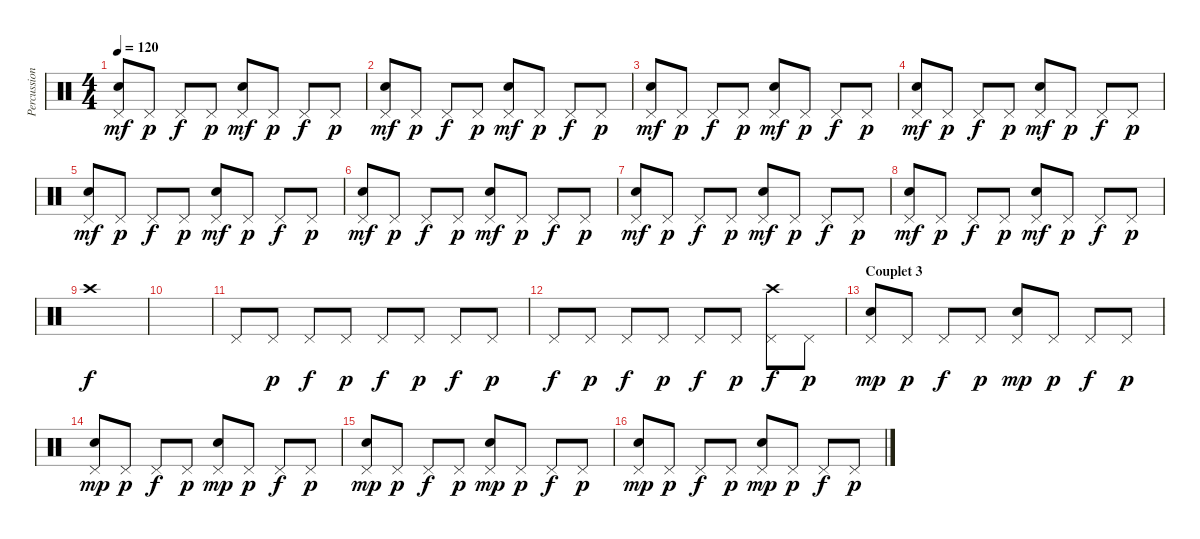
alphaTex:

\track ("Percussions" "Percussion") {instrument percussion}
\staff {score}
\articulation defaults
\ts (4 4)
\tempo 120
\clef neutral
\ks c
("Pedal Hi-Hat (hit)" "Hand Clap (hit)").8{dy mf} "Pedal Hi-Hat (hit)".8{dy p} "Pedal Hi-Hat (hit)".8{dy f} "Pedal Hi-Hat (hit)".8{dy p} ("Pedal Hi-Hat (hit)" "Hand Clap (hit)").8{dy mf} "Pedal Hi-Hat (hit)".8{dy p} "Pedal Hi-Hat (hit)".8{dy f} "Pedal Hi-Hat (hit)".8{dy p} |
("Pedal Hi-Hat (hit)" "Hand Clap (hit)").8{dy mf} "Pedal Hi-Hat (hit)".8{dy p} "Pedal Hi-Hat (hit)".8{dy f} "Pedal Hi-Hat (hit)".8{dy p} ("Pedal Hi-Hat (hit)" "Hand Clap (hit)").8{dy mf} "Pedal Hi-Hat (hit)".8{dy p} "Pedal Hi-Hat (hit)".8{dy f} "Pedal Hi-Hat (hit)".8{dy p} |
("Pedal Hi-Hat (hit)" "Hand Clap (hit)").8{dy mf} "Pedal Hi-Hat (hit)".8{dy p} "Pedal Hi-Hat (hit)".8{dy f} "Pedal Hi-Hat (hit)".8{dy p} ("Pedal Hi-Hat (hit)" "Hand Clap (hit)").8{dy mf} "Pedal Hi-Hat (hit)".8{dy p} "Pedal Hi-Hat (hit)".8{dy f} "Pedal Hi-Hat (hit)".8{dy p} |
("Pedal Hi-Hat (hit)" "Hand Clap (hit)").8{dy mf} "Pedal Hi-Hat (hit)".8{dy p} "Pedal Hi-Hat (hit)".8{dy f} "Pedal Hi-Hat (hit)".8{dy p} ("Pedal Hi-Hat (hit)" "Hand Clap (hit)").8{dy mf} "Pedal Hi-Hat (hit)".8{dy p} "Pedal Hi-Hat (hit)".8{dy f} "Pedal Hi-Hat (hit)".8{dy p} |
("Pedal Hi-Hat (hit)" "Hand Clap (hit)").8{dy mf} "Pedal Hi-Hat (hit)".8{dy p} "Pedal Hi-Hat (hit)".8{dy f} "Pedal Hi-Hat (hit)".8{dy p} ("Pedal Hi-Hat (hit)" "Hand Clap (hit)").8{dy mf} "Pedal Hi-Hat (hit)".8{dy p} "Pedal Hi-Hat (hit)".8{dy f} "Pedal Hi-Hat (hit)".8{dy p} |
("Pedal Hi-Hat (hit)" "Hand Clap (hit)").8{dy mf} "Pedal Hi-Hat (hit)".8{dy p} "Pedal Hi-Hat (hit)".8{dy f} "Pedal Hi-Hat (hit)".8{dy p} ("Pedal Hi-Hat (hit)" "Hand Clap (hit)").8{dy mf} "Pedal Hi-Hat (hit)".8{dy p} "Pedal Hi-Hat (hit)".8{dy f} "Pedal Hi-Hat (hit)".8{dy p} |
("Pedal Hi-Hat (hit)" "Hand Clap (hit)").8{dy mf} "Pedal Hi-Hat (hit)".8{dy p} "Pedal Hi-Hat (hit)".8{dy f} "Pedal Hi-Hat (hit)".8{dy p} ("Pedal Hi-Hat (hit)" "Hand Clap (hit)").8{dy mf} "Pedal Hi-Hat (hit)".8{dy p} "Pedal Hi-Hat (hit)".8{dy f} "Pedal Hi-Hat (hit)".8{dy p} |
("Pedal Hi-Hat (hit)" "Hand Clap (hit)").8{dy mf} "Pedal Hi-Hat (hit)".8{dy p} "Pedal Hi-Hat (hit)".8{dy f} "Pedal Hi-Hat (hit)".8{dy p} ("Pedal Hi-Hat (hit)" "Hand Clap (hit)").8{dy mf} "Pedal Hi-Hat (hit)".8{dy p} "Pedal Hi-Hat (hit)".8{dy f} "Pedal Hi-Hat (hit)".8{dy p} |
"Crash high (hit)".1{dy f} |
|
"Pedal Hi-Hat (hit)".8 "Pedal Hi-Hat (hit)".8{dy p} "Pedal Hi-Hat (hit)".8{dy f} "Pedal Hi-Hat (hit)".8{dy p} "Pedal Hi-Hat (hit)".8{dy f} "Pedal Hi-Hat (hit)".8{dy p} "Pedal Hi-Hat (hit)".8{dy f} "Pedal Hi-Hat (hit)".8{dy p} |
"Pedal Hi-Hat (hit)".8{dy f} "Pedal Hi-Hat (hit)".8{dy p} "Pedal Hi-Hat (hit)".8{dy f} "Pedal Hi-Hat (hit)".8{dy p} "Pedal Hi-Hat (hit)".8{dy f} "Pedal Hi-Hat (hit)".8{dy p} ("Pedal Hi-Hat (hit)" "Crash high (hit)").8{dy f} "Pedal Hi-Hat (hit)".8{dy p} |
\section ("" "Couplet 3")
("Pedal Hi-Hat (hit)" "Hand Clap (hit)").8{dy mp} "Pedal Hi-Hat (hit)".8{dy p} "Pedal Hi-Hat (hit)".8{dy f} "Pedal Hi-Hat (hit)".8{dy p} ("Pedal Hi-Hat (hit)" "Hand Clap (hit)").8{dy mp} "Pedal Hi-Hat (hit)".8{dy p} "Pedal Hi-Hat (hit)".8{dy f} "Pedal Hi-Hat (hit)".8{dy p} |
("Pedal Hi-Hat (hit)" "Hand Clap (hit)").8{dy mp} "Pedal Hi-Hat (hit)".8{dy p} "Pedal Hi-Hat (hit)".8{dy f} "Pedal Hi-Hat (hit)".8{dy p} ("Pedal Hi-Hat (hit)" "Hand Clap (hit)").8{dy mp} "Pedal Hi-Hat (hit)".8{dy p} "Pedal Hi-Hat (hit)".8{dy f} "Pedal Hi-Hat (hit)".8{dy p} |
("Pedal Hi-Hat (hit)" "Hand Clap (hit)").8{dy mp} "Pedal Hi-Hat (hit)".8{dy p} "Pedal Hi-Hat (hit)".8{dy f} "Pedal Hi-Hat (hit)".8{dy p} ("Pedal Hi-Hat (hit)" "Hand Clap (hit)").8{dy mp} "Pedal Hi-Hat (hit)".8{dy p} "Pedal Hi-Hat (hit)".8{dy f} "Pedal Hi-Hat (hit)".8{dy p} |
("Pedal Hi-Hat (hit)" "Hand Clap (hit)").8{dy mp} "Pedal Hi-Hat (hit)".8{dy p} "Pedal Hi-Hat (hit)".8{dy f} "Pedal Hi-Hat (hit)".8{dy p} ("Pedal Hi-Hat (hit)" "Hand Clap (hit)").8{dy mp} "Pedal Hi-Hat (hit)".8{dy p} "Pedal Hi-Hat (hit)".8{dy f} "Pedal Hi-Hat (hit)".8{dy p}
